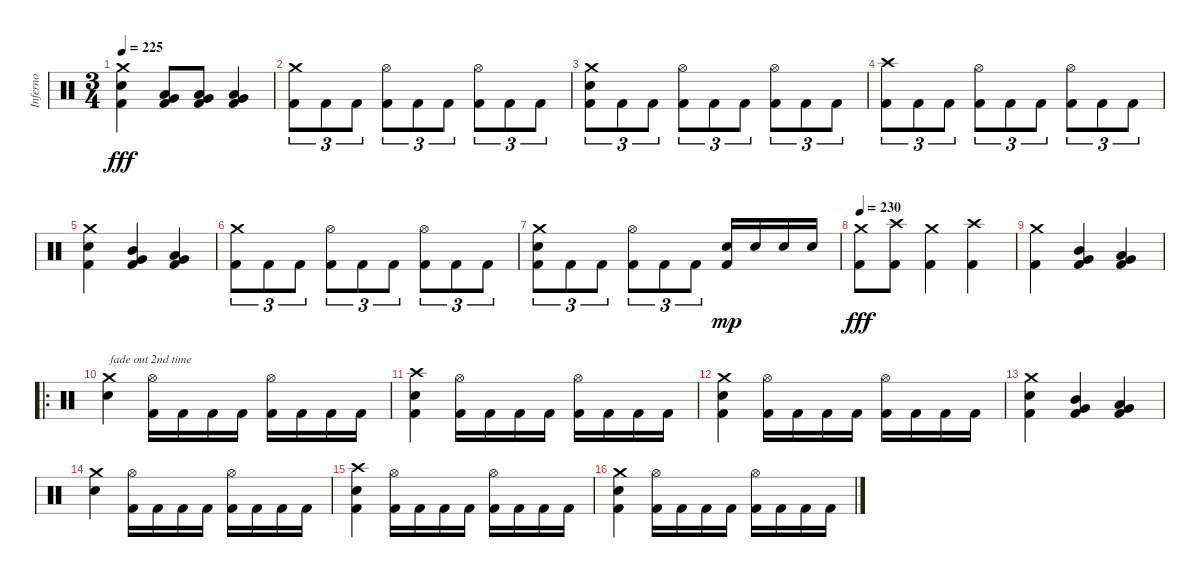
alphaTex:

\track ("Inferno" "Inferno") {instrument percussion}
\staff {score}
\articulation defaults
\ts (3 4)
\tempo 225
\clef neutral
\ks c
("Kick (hit) 2" "Electric Snare (hit)" "Crash medium (hit)").4{dy fff} ("Kick (hit) 2" "Low Tom (hit)" "Very Low Tom (hit)").8 ("Kick (hit) 2" "Low Tom (hit)" "Very Low Tom (hit)").8 ("Kick (hit) 2" "Low Tom (hit)" "Very Low Tom (hit)").4 |
("Kick (hit) 2" "Crash medium (hit)").8{tu (3 2)} "Kick (hit) 2".8{tu (3 2)} "Kick (hit) 2".8{tu (3 2)} ("Kick (hit) 2" "Hi-Hat (open)").8{tu (3 2)} "Kick (hit) 2".8{tu (3 2)} "Kick (hit) 2".8{tu (3 2)} ("Kick (hit) 2" "Hi-Hat (open)").8{tu (3 2)} "Kick (hit) 2".8{tu (3 2)} "Kick (hit) 2".8{tu (3 2)} |
("Kick (hit) 2" "Electric Snare (hit)" "Crash medium (hit)").8{tu (3 2)} "Kick (hit) 2".8{tu (3 2)} "Kick (hit) 2".8{tu (3 2)} ("Kick (hit) 2" "Hi-Hat (open)").8{tu (3 2)} "Kick (hit) 2".8{tu (3 2)} "Kick (hit) 2".8{tu (3 2)} ("Kick (hit) 2" "Hi-Hat (open)").8{tu (3 2)} "Kick (hit) 2".8{tu (3 2)} "Kick (hit) 2".8{tu (3 2)} |
("Kick (hit) 2" "Crash high (hit)").8{tu (3 2)} "Kick (hit) 2".8{tu (3 2)} "Kick (hit) 2".8{tu (3 2)} ("Kick (hit) 2" "Hi-Hat (open)").8{tu (3 2)} "Kick (hit) 2".8{tu (3 2)} "Kick (hit) 2".8{tu (3 2)} ("Kick (hit) 2" "Hi-Hat (open)").8{tu (3 2)} "Kick (hit) 2".8{tu (3 2)} "Kick (hit) 2".8{tu (3 2)} |
("Kick (hit) 2" "Electric Snare (hit)" "Crash medium (hit)").4 ("Kick (hit) 2" "Mid Tom (hit)" "Very Low Tom (hit)").4 ("Kick (hit) 2" "Low Tom (hit)" "Very Low Tom (hit)").4 |
("Kick (hit) 2" "Crash medium (hit)").8{tu (3 2)} "Kick (hit) 2".8{tu (3 2)} "Kick (hit) 2".8{tu (3 2)} ("Kick (hit) 2" "Hi-Hat (open)").8{tu (3 2)} "Kick (hit) 2".8{tu (3 2)} "Kick (hit) 2".8{tu (3 2)} ("Kick (hit) 2" "Hi-Hat (open)").8{tu (3 2)} "Kick (hit) 2".8{tu (3 2)} "Kick (hit) 2".8{tu (3 2)} |
("Kick (hit) 2" "Electric Snare (hit)" "Crash medium (hit)").8{tu (3 2)} "Kick (hit) 2".8{tu (3 2)} "Kick (hit) 2".8{tu (3 2)} ("Kick (hit) 2" "Hi-Hat (open)").8{tu (3 2)} "Kick (hit) 2".8{tu (3 2)} "Kick (hit) 2".8{tu (3 2)} ("Kick (hit) 2" "Electric Snare (hit)").16{dy mp} "Electric Snare (hit)".16 "Electric Snare (hit)".16 "Electric Snare (hit)".16 |
\tempo 230
("Kick (hit) 2" "Crash medium (hit)").8{dy fff} ("Kick (hit) 2" "Crash high (hit)").8 ("Kick (hit) 2" "Crash medium (hit)").4 ("Kick (hit) 2" "Crash high (hit)").4 |
("Kick (hit) 2" "Crash medium (hit)").4 ("Kick (hit) 2" "Mid Tom (hit)" "Very Low Tom (hit)").4 ("Kick (hit) 2" "Low Tom (hit)" "Very Low Tom (hit)").4 |
\ro
("Electric Snare (hit)" "Crash medium (hit)").4{txt "fade out 2nd time"} ("Kick (hit) 2" "Hi-Hat (open)").16 "Kick (hit) 2".16 "Kick (hit) 2".16 "Kick (hit) 2".16 ("Kick (hit) 2" "Hi-Hat (open)").16 "Kick (hit) 2".16 "Kick (hit) 2".16 "Kick (hit) 2".16 |
("Kick (hit) 2" "Electric Snare (hit)" "Crash high (hit)").4 ("Kick (hit) 2" "Hi-Hat (open)").16 "Kick (hit) 2".16 "Kick (hit) 2".16 "Kick (hit) 2".16 ("Kick (hit) 2" "Hi-Hat (open)").16 "Kick (hit) 2".16 "Kick (hit) 2".16 "Kick (hit) 2".16 |
("Kick (hit) 2" "Electric Snare (hit)" "Crash medium (hit)").4 ("Kick (hit) 2" "Hi-Hat (open)").16 "Kick (hit) 2".16 "Kick (hit) 2".16 "Kick (hit) 2".16 ("Kick (hit) 2" "Hi-Hat (open)").16 "Kick (hit) 2".16 "Kick (hit) 2".16 "Kick (hit) 2".16 |
("Kick (hit) 2" "Electric Snare (hit)" "Crash medium (hit)").4 ("Kick (hit) 2" "Mid Tom (hit)" "Very Low Tom (hit)").4 ("Kick (hit) 2" "Low Tom (hit)" "Very Low Tom (hit)").4 |
("Electric Snare (hit)" "Crash medium (hit)").4 ("Kick (hit) 2" "Hi-Hat (open)").16 "Kick (hit) 2".16 "Kick (hit) 2".16 "Kick (hit) 2".16 ("Kick (hit) 2" "Hi-Hat (open)").16 "Kick (hit) 2".16 "Kick (hit) 2".16 "Kick (hit) 2".16 |
("Kick (hit) 2" "Electric Snare (hit)" "Crash high (hit)").4 ("Kick (hit) 2" "Hi-Hat (open)").16 "Kick (hit) 2".16 "Kick (hit) 2".16 "Kick (hit) 2".16 ("Kick (hit) 2" "Hi-Hat (open)").16 "Kick (hit) 2".16 "Kick (hit) 2".16 "Kick (hit) 2".16 |
("Kick (hit) 2" "Electric Snare (hit)" "Crash medium (hit)").4 ("Kick (hit) 2" "Hi-Hat (open)").16 "Kick (hit) 2".16 "Kick (hit) 2".16 "Kick (hit) 2".16 ("Kick (hit) 2" "Hi-Hat (open)").16 "Kick (hit) 2".16 "Kick (hit) 2".16 "Kick (hit) 2".16
